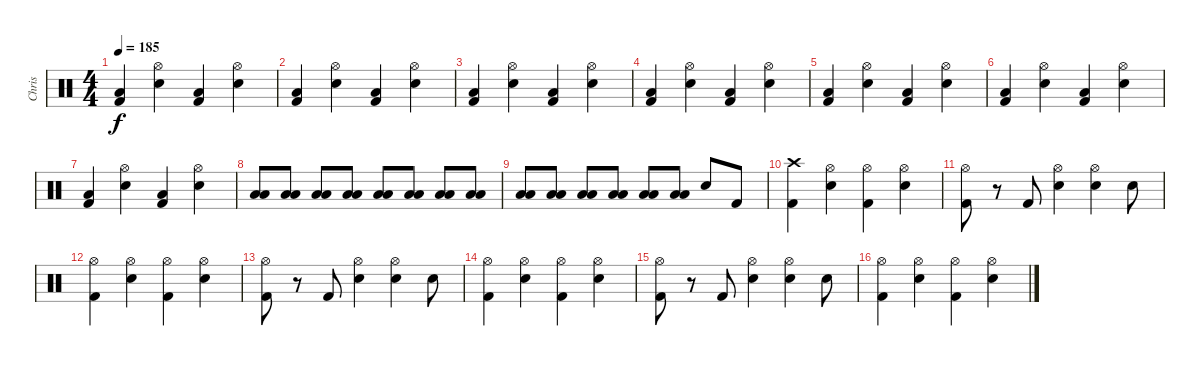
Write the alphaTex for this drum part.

\track ("Chris" "Chris") {instrument percussion}
\staff {score}
\articulation defaults
\ts (4 4)
\tempo 185
\clef neutral
\ks c
("Low Tom (hit)" "Kick (hit) 2").4{dy f} ("Snare (hit) 2" "Hi-Hat (open)").4 ("Low Tom (hit)" "Kick (hit) 2").4 ("Snare (hit) 2" "Hi-Hat (open)").4 |
("Low Tom (hit)" "Kick (hit) 2").4 ("Snare (hit) 2" "Hi-Hat (open)").4 ("Low Tom (hit)" "Kick (hit) 2").4 ("Snare (hit) 2" "Hi-Hat (open)").4 |
("Low Tom (hit)" "Kick (hit) 2").4 ("Snare (hit) 2" "Hi-Hat (open)").4 ("Low Tom (hit)" "Kick (hit) 2").4 ("Snare (hit) 2" "Hi-Hat (open)").4 |
("Low Tom (hit)" "Kick (hit) 2").4 ("Snare (hit) 2" "Hi-Hat (open)").4 ("Low Tom (hit)" "Kick (hit) 2").4 ("Snare (hit) 2" "Hi-Hat (open)").4 |
("Low Tom (hit)" "Kick (hit) 2").4 ("Snare (hit) 2" "Hi-Hat (open)").4 ("Low Tom (hit)" "Kick (hit) 2").4 ("Snare (hit) 2" "Hi-Hat (open)").4 |
("Low Tom (hit)" "Kick (hit) 2").4 ("Snare (hit) 2" "Hi-Hat (open)").4 ("Low Tom (hit)" "Kick (hit) 2").4 ("Snare (hit) 2" "Hi-Hat (open)").4 |
("Low Tom (hit)" "Kick (hit) 2").4 ("Snare (hit) 2" "Hi-Hat (open)").4 ("Low Tom (hit)" "Kick (hit) 2").4 ("Snare (hit) 2" "Hi-Hat (open)").4 |
("Low Floor Tom (hit)" "Low Tom (hit)").8 ("Low Floor Tom (hit)" "Low Tom (hit)").8 ("Low Floor Tom (hit)" "Low Tom (hit)").8 ("Low Floor Tom (hit)" "Low Tom (hit)").8 ("Low Floor Tom (hit)" "Low Tom (hit)").8 ("Low Floor Tom (hit)" "Low Tom (hit)").8 ("Low Floor Tom (hit)" "Low Tom (hit)").8 ("Low Floor Tom (hit)" "Low Tom (hit)").8 |
("Low Floor Tom (hit)" "Low Tom (hit)").8 ("Low Floor Tom (hit)" "Low Tom (hit)").8 ("Low Floor Tom (hit)" "Low Tom (hit)").8 ("Low Floor Tom (hit)" "Low Tom (hit)").8 ("Low Floor Tom (hit)" "Low Tom (hit)").8 ("Low Floor Tom (hit)" "Low Tom (hit)").8 "Snare (hit) 2".8 "Kick (hit) 2".8 |
("Crash high (hit)" "Kick (hit) 2").4 ("Snare (hit) 2" "Hi-Hat (open)").4 ("Hi-Hat (open)" "Kick (hit) 2").4 ("Snare (hit) 2" "Hi-Hat (open)").4 |
("Hi-Hat (open)" "Kick (hit) 2").8 r.8 "Kick (hit) 2".8 ("Snare (hit) 2" "Hi-Hat (open)").4 ("Snare (hit) 2" "Hi-Hat (open)").4 "Snare (hit) 2".8 |
("Hi-Hat (open)" "Kick (hit) 2").4 ("Snare (hit) 2" "Hi-Hat (open)").4 ("Hi-Hat (open)" "Kick (hit) 2").4 ("Snare (hit) 2" "Hi-Hat (open)").4 |
("Hi-Hat (open)" "Kick (hit) 2").8 r.8 "Kick (hit) 2".8 ("Snare (hit) 2" "Hi-Hat (open)").4 ("Snare (hit) 2" "Hi-Hat (open)").4 "Snare (hit) 2".8 |
("Hi-Hat (open)" "Kick (hit) 2").4 ("Snare (hit) 2" "Hi-Hat (open)").4 ("Hi-Hat (open)" "Kick (hit) 2").4 ("Snare (hit) 2" "Hi-Hat (open)").4 |
("Hi-Hat (open)" "Kick (hit) 2").8 r.8 "Kick (hit) 2".8 ("Snare (hit) 2" "Hi-Hat (open)").4 ("Snare (hit) 2" "Hi-Hat (open)").4 "Snare (hit) 2".8 |
("Hi-Hat (open)" "Kick (hit) 2").4 ("Snare (hit) 2" "Hi-Hat (open)").4 ("Hi-Hat (open)" "Kick (hit) 2").4 ("Snare (hit) 2" "Hi-Hat (open)").4
